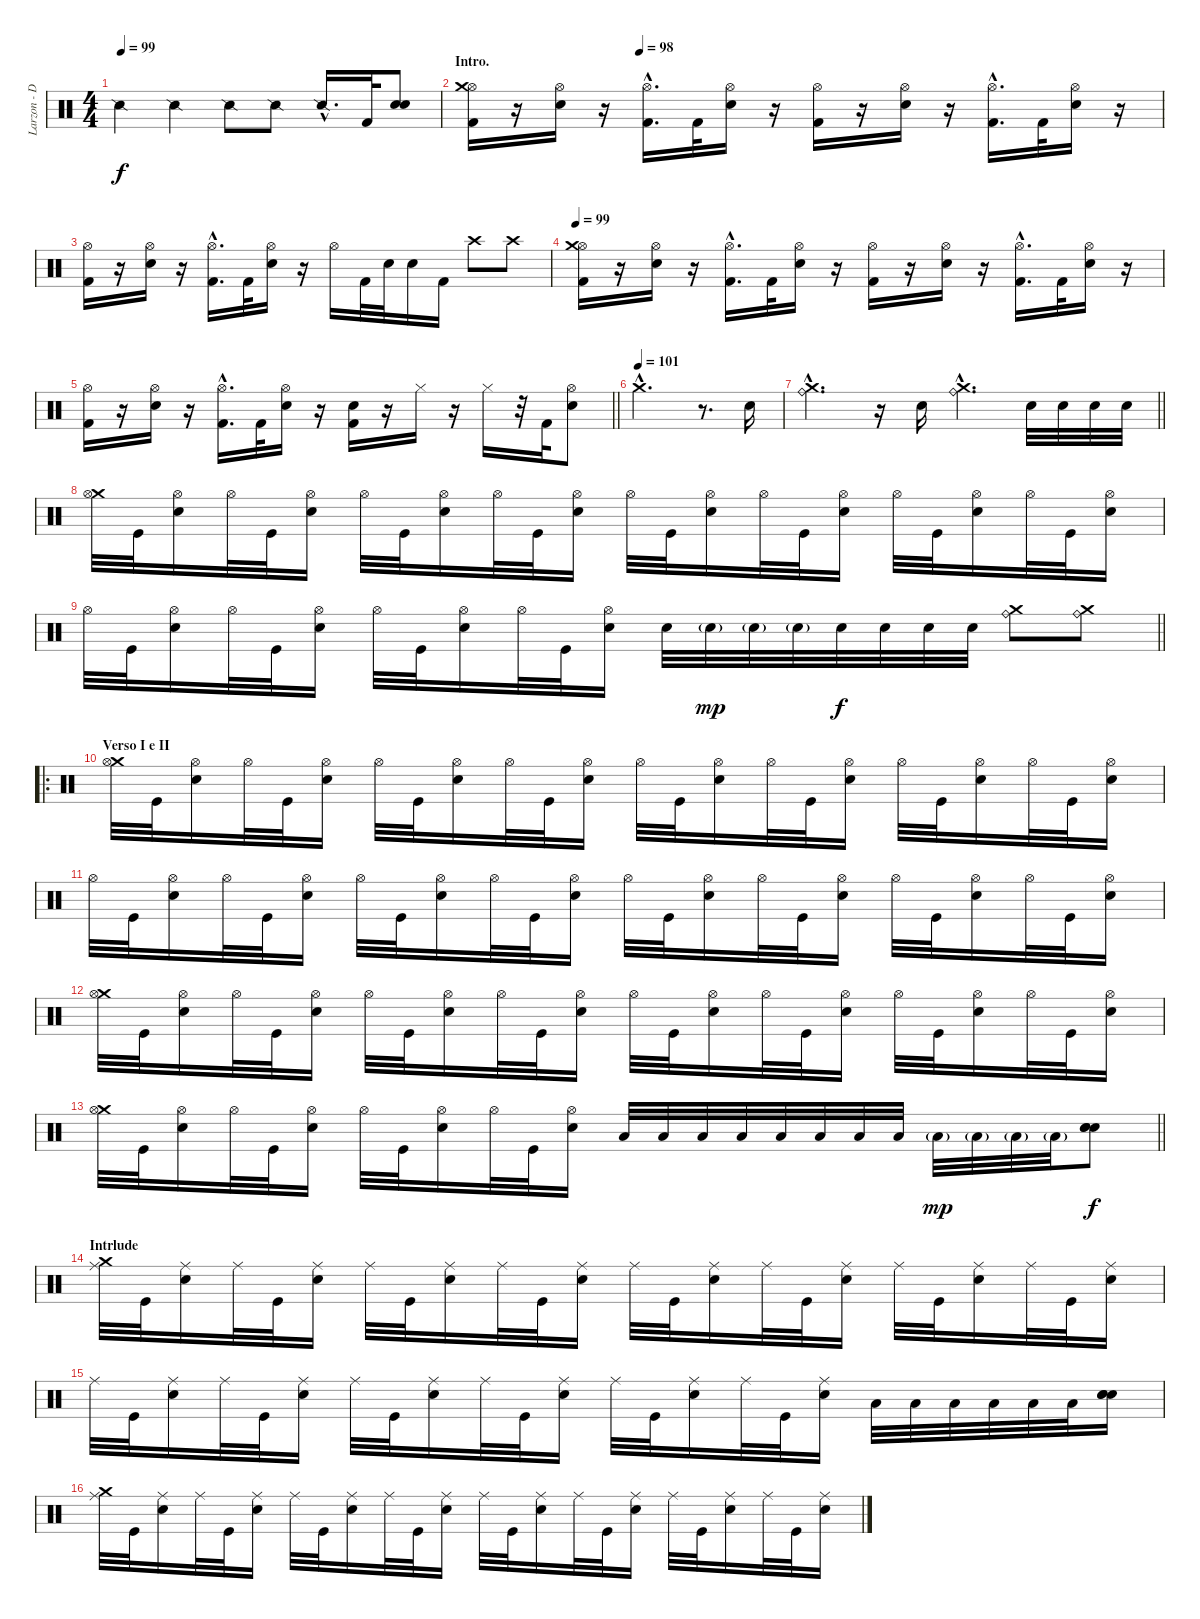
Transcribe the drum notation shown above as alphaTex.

\track ("Larzon - Drums" "Larzon - D") {instrument percussion}
\staff {score}
\articulation defaults
\ts (4 4)
\tempo 99
\tempo 95
\tempo 99
\clef neutral
\ks c "Snare (side stick) 2".4{dy f} "Snare (side stick) 2".4 "Snare (side stick) 2".8 "Snare (side stick) 2".8 "Snare (side stick) 2"{hac}.16{d} "Kick (hit) 2".32
("Electric Snare (hit)" "Electric Snare (hit)").8 |
\section ("" "Intro.")
\tempo (98 0.25)
("Kick (hit) 2" "Hi-Hat (open)" "Crash medium (hit)").16 r.16 ("Electric Snare (hit)" "Hi-Hat (open)").16 r.16 ("Kick (hit) 2"{hac} "Hi-Hat (open)"{hac}).16{d} "Kick (hit) 2".32 ("Electric Snare (hit)" "Hi-Hat (open)").16 r.16 ("Kick (hit) 2" "Hi-Hat (open)").16 r.16 ("Electric Snare (hit)" "Hi-Hat (open)").16 r.16 ("Kick (hit) 2"{hac} "Hi-Hat (open)"{hac}).16{d} "Kick (hit) 2".32 ("Electric Snare (hit)" "Hi-Hat (open)").16 r.16 |
("Kick (hit) 2" "Hi-Hat (open)").16 r.16 ("Electric Snare (hit)" "Hi-Hat (open)").16 r.16 ("Kick (hit) 2"{hac} "Hi-Hat (open)"{hac}).16{d} "Kick (hit) 2".32 ("Electric Snare (hit)" "Hi-Hat (open)").16 r.16 "Hi-Hat (open)".16 "Kick (hit) 2".32 "Electric Snare (hit)".32 "Electric Snare (hit)".16 "Kick (hit) 2".16 "Crash high (hit)".8 "Crash high (hit)".8 |
\tempo 99
("Kick (hit) 2" "Hi-Hat (open)" "Crash medium (hit)").16 r.16 ("Electric Snare (hit)" "Hi-Hat (open)").16 r.16 ("Kick (hit) 2"{hac} "Hi-Hat (open)"{hac}).16{d} "Kick (hit) 2".32 ("Electric Snare (hit)" "Hi-Hat (open)").16 r.16 ("Kick (hit) 2" "Hi-Hat (open)").16 r.16 ("Electric Snare (hit)" "Hi-Hat (open)").16 r.16 ("Kick (hit) 2"{hac} "Hi-Hat (open)"{hac}).16{d} "Kick (hit) 2".32 ("Electric Snare (hit)" "Hi-Hat (open)").16 r.16 |
\barLineRight lightlight
("Kick (hit) 2" "Hi-Hat (open)").16 r.16 ("Electric Snare (hit)" "Hi-Hat (open)").16 r.16 ("Kick (hit) 2"{hac} "Hi-Hat (open)"{hac}).16{d} "Kick (hit) 2".32 ("Electric Snare (hit)" "Hi-Hat (open)").16 r.16 ("Kick (hit) 2" "Electric Snare (hit)").16 r.16 "Hi-Hat (closed)".16 r.16 "Hi-Hat (closed)".16 r.32 "Kick (hit) 2".32 ("Electric Snare (hit)" "Hi-Hat (open)").8 |
\tempo (101)
"Crash medium (hit)"{hac}.2{d} r.8{d} "Electric Snare (hit)".16 |
\barLineRight lightlight
("Crash medium (hit)"{hac} "Ride (bell)"{hac}).4{d} r.16 "Electric Snare (hit)".16 ("Crash medium (hit)"{hac} "Ride (bell)"{hac}).4{d} "Electric Snare (hit)".32 "Electric Snare (hit)".32 "Electric Snare (hit)".32 "Electric Snare (hit)".32 |
("Crash medium (hit)" "Hi-Hat (open)").32 "Kick (hit)".32 ("Electric Snare (hit)" "Hi-Hat (open)").16 "Hi-Hat (open)".32 "Kick (hit)".32 ("Electric Snare (hit)" "Hi-Hat (open)").16 "Hi-Hat (open)".32 "Kick (hit)".32 ("Electric Snare (hit)" "Hi-Hat (open)").16 "Hi-Hat (open)".32 "Kick (hit)".32 ("Electric Snare (hit)" "Hi-Hat (open)").16 "Hi-Hat (open)".32 "Kick (hit)".32 ("Electric Snare (hit)" "Hi-Hat (open)").16 "Hi-Hat (open)".32 "Kick (hit)".32 ("Electric Snare (hit)" "Hi-Hat (open)").16 "Hi-Hat (open)".32 "Kick (hit)".32 ("Electric Snare (hit)" "Hi-Hat (open)").16 "Hi-Hat (open)".32 "Kick (hit)".32 ("Electric Snare (hit)" "Hi-Hat (open)").16 |
\barLineRight lightlight "Hi-Hat (open)".32 "Kick (hit)".32
("Electric Snare (hit)" "Hi-Hat (open)").16 "Hi-Hat (open)".32 "Kick (hit)".32 ("Electric Snare (hit)" "Hi-Hat (open)").16 "Hi-Hat (open)".32 "Kick (hit)".32 ("Electric Snare (hit)" "Hi-Hat (open)").16 "Hi-Hat (open)".32 "Kick (hit)".32 ("Electric Snare (hit)" "Hi-Hat (open)").16 "Electric Snare (hit)".32 "Electric Snare (hit)"{g}.32{dy mp} "Electric Snare (hit)"{g}.32 "Electric Snare (hit)"{g}.32 "Electric Snare (hit)".32{dy f} "Electric Snare (hit)".32 "Electric Snare (hit)".32 "Electric Snare (hit)".32 ("Ride (bell)" "Crash medium (hit)").8 ("Ride (bell)" "Crash medium (hit)").8 |
\ro
\section ("" "Verso I e II")
("Crash medium (hit)" "Hi-Hat (open)").32 "Kick (hit)".32 ("Electric Snare (hit)" "Hi-Hat (open)").16 "Hi-Hat (open)".32 "Kick (hit)".32 ("Electric Snare (hit)" "Hi-Hat (open)").16 "Hi-Hat (open)".32 "Kick (hit)".32 ("Electric Snare (hit)" "Hi-Hat (open)").16 "Hi-Hat (open)".32 "Kick (hit)".32 ("Electric Snare (hit)" "Hi-Hat (open)").16 "Hi-Hat (open)".32 "Kick (hit)".32 ("Electric Snare (hit)" "Hi-Hat (open)").16 "Hi-Hat (open)".32 "Kick (hit)".32 ("Electric Snare (hit)" "Hi-Hat (open)").16 "Hi-Hat (open)".32 "Kick (hit)".32 ("Electric Snare (hit)" "Hi-Hat (open)").16 "Hi-Hat (open)".32 "Kick (hit)".32 ("Electric Snare (hit)" "Hi-Hat (open)").16 |
"Hi-Hat (open)".32 "Kick (hit)".32 ("Electric Snare (hit)" "Hi-Hat (open)").16 "Hi-Hat (open)".32 "Kick (hit)".32 ("Electric Snare (hit)" "Hi-Hat (open)").16 "Hi-Hat (open)".32 "Kick (hit)".32 ("Electric Snare (hit)" "Hi-Hat (open)").16 "Hi-Hat (open)".32 "Kick (hit)".32 ("Electric Snare (hit)" "Hi-Hat (open)").16 "Hi-Hat (open)".32 "Kick (hit)".32 ("Electric Snare (hit)" "Hi-Hat (open)").16 "Hi-Hat (open)".32 "Kick (hit)".32 ("Electric Snare (hit)" "Hi-Hat (open)").16 "Hi-Hat (open)".32 "Kick (hit)".32 ("Electric Snare (hit)" "Hi-Hat (open)").16 "Hi-Hat (open)".32 "Kick (hit)".32 ("Electric Snare (hit)" "Hi-Hat (open)").16 |
("Crash medium (hit)" "Hi-Hat (open)").32 "Kick (hit)".32 ("Electric Snare (hit)" "Hi-Hat (open)").16 "Hi-Hat (open)".32 "Kick (hit)".32 ("Electric Snare (hit)" "Hi-Hat (open)").16 "Hi-Hat (open)".32 "Kick (hit)".32 ("Electric Snare (hit)" "Hi-Hat (open)").16 "Hi-Hat (open)".32 "Kick (hit)".32 ("Electric Snare (hit)" "Hi-Hat (open)").16 "Hi-Hat (open)".32 "Kick (hit)".32 ("Electric Snare (hit)" "Hi-Hat (open)").16 "Hi-Hat (open)".32 "Kick (hit)".32 ("Electric Snare (hit)" "Hi-Hat (open)").16 "Hi-Hat (open)".32 "Kick (hit)".32 ("Electric Snare (hit)" "Hi-Hat (open)").16 "Hi-Hat (open)".32 "Kick (hit)".32 ("Electric Snare (hit)" "Hi-Hat (open)").16 |
\barLineRight lightlight
("Crash medium (hit)" "Hi-Hat (open)").32 "Kick (hit)".32 ("Electric Snare (hit)" "Hi-Hat (open)").16 "Hi-Hat (open)".32 "Kick (hit)".32 ("Electric Snare (hit)" "Hi-Hat (open)").16 "Hi-Hat (open)".32 "Kick (hit)".32 ("Electric Snare (hit)" "Hi-Hat (open)").16 "Hi-Hat (open)".32 "Kick (hit)".32 ("Electric Snare (hit)" "Hi-Hat (open)").16 "Low Tom (hit)".32 "Low Tom (hit)".32 "Low Tom (hit)".32 "Low Tom (hit)".32 "Low Tom (hit)".32 "Low Tom (hit)".32 "Low Tom (hit)".32 "Low Tom (hit)".32 "Low Tom (hit)"{g}.32{dy mp} "Low Tom (hit)"{g}.32 "Low Tom (hit)"{g}.32 "Low Tom (hit)"{g}.32 ("Electric Snare (hit)" "Electric Snare (hit)" "Electric Snare (hit)").8{dy f} |
\section ("" "Intrlude")
("Crash medium (hit)" "Ride (middle)").32 "Kick (hit)".32 ("Electric Snare (hit)" "Ride (middle)").16 "Ride (middle)".32 "Kick (hit)".32 ("Electric Snare (hit)" "Ride (middle)").16 "Ride (middle)".32 "Kick (hit)".32 ("Electric Snare (hit)" "Ride (middle)").16 "Ride (middle)".32 "Kick (hit)".32 ("Electric Snare (hit)" "Ride (middle)").16 "Ride (middle)".32 "Kick (hit)".32 ("Electric Snare (hit)" "Ride (middle)").16 "Ride (middle)".32 "Kick (hit)".32 ("Electric Snare (hit)" "Ride (middle)").16 "Ride (middle)".32 "Kick (hit)".32 ("Electric Snare (hit)" "Ride (middle)").16 "Ride (middle)".32 "Kick (hit)".32 ("Electric Snare (hit)" "Ride (middle)").16 |
"Ride (middle)".32 "Kick (hit)".32 ("Electric Snare (hit)" "Ride (middle)").16 "Ride (middle)".32 "Kick (hit)".32 ("Electric Snare (hit)" "Ride (middle)").16 "Ride (middle)".32 "Kick (hit)".32 ("Electric Snare (hit)" "Ride (middle)").16 "Ride (middle)".32 "Kick (hit)".32 ("Electric Snare (hit)" "Ride (middle)").16 "Ride (middle)".32 "Kick (hit)".32 ("Electric Snare (hit)" "Ride (middle)").16 "Ride (middle)".32 "Kick (hit)".32 ("Electric Snare (hit)" "Ride (middle)").16 "Low Tom (hit)".32 "Low Tom (hit)".32 "Low Tom (hit)".32 "Low Tom (hit)".32 "Low Tom (hit)".32 "Low Tom (hit)".32 ("Electric Snare (hit)" "Electric Snare (hit)" "Electric Snare (hit)").16 |
("Crash medium (hit)" "Ride (middle)").32 "Kick (hit)".32 ("Electric Snare (hit)" "Ride (middle)").16 "Ride (middle)".32 "Kick (hit)".32 ("Electric Snare (hit)" "Ride (middle)").16 "Ride (middle)".32 "Kick (hit)".32 ("Electric Snare (hit)" "Ride (middle)").16 "Ride (middle)".32 "Kick (hit)".32 ("Electric Snare (hit)" "Ride (middle)").16 "Ride (middle)".32 "Kick (hit)".32 ("Electric Snare (hit)" "Ride (middle)").16 "Ride (middle)".32 "Kick (hit)".32 ("Electric Snare (hit)" "Ride (middle)").16 "Ride (middle)".32 "Kick (hit)".32 ("Electric Snare (hit)" "Ride (middle)").16 "Ride (middle)".32 "Kick (hit)".32 ("Electric Snare (hit)" "Ride (middle)").16
